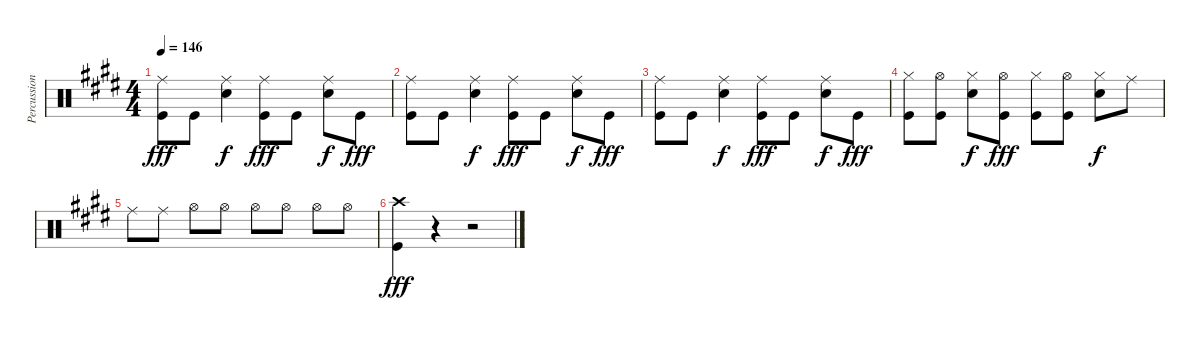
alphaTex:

\track ("Percussion" "Percussion") {instrument percussion}
\staff {score}
\articulation defaults
\ts (4 4)
\tempo 146
\clef neutral
\ks e
("Ride (middle)" "Kick (hit)").8{dy fff} "Kick (hit)".8 ("Ride (middle)" "Snare (hit) 2").4{dy f} ("Ride (middle)" "Kick (hit)").8{dy fff} "Kick (hit)".8 ("Ride (middle)" "Snare (hit) 2").8{dy f} "Kick (hit)".8{dy fff} |
("Ride (middle)" "Kick (hit)").8 "Kick (hit)".8 ("Ride (middle)" "Snare (hit) 2").4{dy f} ("Ride (middle)" "Kick (hit)").8{dy fff} "Kick (hit)".8 ("Ride (middle)" "Snare (hit) 2").8{dy f} "Kick (hit)".8{dy fff} |
("Ride (middle)" "Kick (hit)").8 "Kick (hit)".8 ("Ride (middle)" "Snare (hit) 2").4{dy f} ("Ride (middle)" "Kick (hit)").8{dy fff} "Kick (hit)".8 ("Ride (middle)" "Snare (hit) 2").8{dy f} "Kick (hit)".8{dy fff} |
("Hi-Hat (closed)" "Kick (hit)").8 ("Hi-Hat (open)" "Kick (hit)").8 ("Hi-Hat (closed)" "Snare (hit) 2").8{dy f} ("Hi-Hat (open)" "Kick (hit)").8{dy fff} ("Hi-Hat (closed)" "Kick (hit)").8 ("Hi-Hat (open)" "Kick (hit)").8 ("Hi-Hat (closed)" "Snare (hit) 2").8{dy f} "Ride (middle)".8 |
"Ride (middle)".8 "Ride (middle)".8 "Hi-Hat (open)".8 "Hi-Hat (open)".8 "Hi-Hat (open)".8 "Hi-Hat (open)".8 "Hi-Hat (open)".8 "Hi-Hat (open)".8 |
("Crash high (hit)" "Kick (hit)").4{dy fff} r.4 r.2
